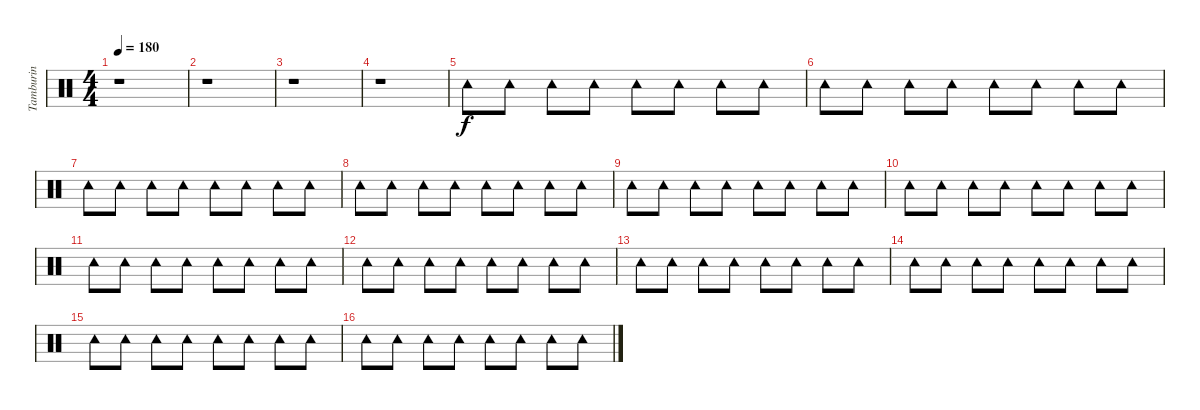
\track ("Tamburin" "Tamburin") {instrument percussion}
\staff {score}
\articulation defaults
\ts (4 4)
\tempo 180
\clef neutral
\ks c
r.1{dy f} |
r.1 |
r.1 |
r.1 |
"Tambourine (hit)".8 "Tambourine (hit)".8 "Tambourine (hit)".8 "Tambourine (hit)".8 "Tambourine (hit)".8 "Tambourine (hit)".8 "Tambourine (hit)".8 "Tambourine (hit)".8 |
"Tambourine (hit)".8 "Tambourine (hit)".8 "Tambourine (hit)".8 "Tambourine (hit)".8 "Tambourine (hit)".8 "Tambourine (hit)".8 "Tambourine (hit)".8 "Tambourine (hit)".8 |
"Tambourine (hit)".8 "Tambourine (hit)".8 "Tambourine (hit)".8 "Tambourine (hit)".8 "Tambourine (hit)".8 "Tambourine (hit)".8 "Tambourine (hit)".8 "Tambourine (hit)".8 |
"Tambourine (hit)".8 "Tambourine (hit)".8 "Tambourine (hit)".8 "Tambourine (hit)".8 "Tambourine (hit)".8 "Tambourine (hit)".8 "Tambourine (hit)".8 "Tambourine (hit)".8 |
"Tambourine (hit)".8 "Tambourine (hit)".8 "Tambourine (hit)".8 "Tambourine (hit)".8 "Tambourine (hit)".8 "Tambourine (hit)".8 "Tambourine (hit)".8 "Tambourine (hit)".8 |
"Tambourine (hit)".8 "Tambourine (hit)".8 "Tambourine (hit)".8 "Tambourine (hit)".8 "Tambourine (hit)".8 "Tambourine (hit)".8 "Tambourine (hit)".8 "Tambourine (hit)".8 |
"Tambourine (hit)".8 "Tambourine (hit)".8 "Tambourine (hit)".8 "Tambourine (hit)".8 "Tambourine (hit)".8 "Tambourine (hit)".8 "Tambourine (hit)".8 "Tambourine (hit)".8 |
"Tambourine (hit)".8 "Tambourine (hit)".8 "Tambourine (hit)".8 "Tambourine (hit)".8 "Tambourine (hit)".8 "Tambourine (hit)".8 "Tambourine (hit)".8 "Tambourine (hit)".8 |
"Tambourine (hit)".8 "Tambourine (hit)".8 "Tambourine (hit)".8 "Tambourine (hit)".8 "Tambourine (hit)".8 "Tambourine (hit)".8 "Tambourine (hit)".8 "Tambourine (hit)".8 |
"Tambourine (hit)".8 "Tambourine (hit)".8 "Tambourine (hit)".8 "Tambourine (hit)".8 "Tambourine (hit)".8 "Tambourine (hit)".8 "Tambourine (hit)".8 "Tambourine (hit)".8 |
"Tambourine (hit)".8 "Tambourine (hit)".8 "Tambourine (hit)".8 "Tambourine (hit)".8 "Tambourine (hit)".8 "Tambourine (hit)".8 "Tambourine (hit)".8 "Tambourine (hit)".8 |
"Tambourine (hit)".8 "Tambourine (hit)".8 "Tambourine (hit)".8 "Tambourine (hit)".8 "Tambourine (hit)".8 "Tambourine (hit)".8 "Tambourine (hit)".8 "Tambourine (hit)".8
